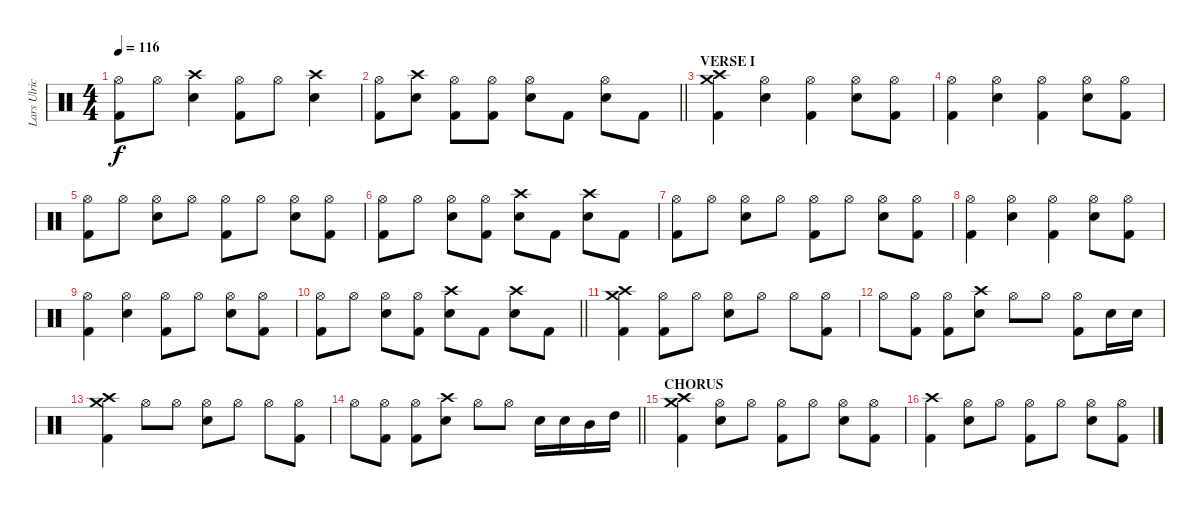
\track ("Lars Ulrich - drums" "Lars Ulric") {instrument percussion}
\staff {score}
\articulation defaults
\ts (4 4)
\tempo 116
\clef neutral
\ks c
("Hi-Hat (open)" "Kick (hit) 2").8{dy f} "Hi-Hat (open)".8 ("Crash high (hit)" "Snare (hit) 2").4 ("Hi-Hat (open)" "Kick (hit) 2").8 "Hi-Hat (open)".8 ("Crash high (hit)" "Snare (hit) 2").4 |
\barLineRight lightlight
("Hi-Hat (open)" "Kick (hit) 2").8 ("Crash high (hit)" "Snare (hit) 2").8 ("Hi-Hat (open)" "Kick (hit) 2").8 ("Hi-Hat (open)" "Kick (hit) 2").8 ("Hi-Hat (open)" "Snare (hit) 2").8 "Kick (hit) 2".8 ("Hi-Hat (open)" "Snare (hit) 2").8 "Kick (hit) 2".8 |
\section ("" "VERSE I")
("Crash high (hit)" "Crash medium (hit)" "Kick (hit) 2").4 ("Hi-Hat (open)" "Snare (hit) 2").4 ("Hi-Hat (open)" "Kick (hit) 2").4 ("Hi-Hat (open)" "Snare (hit) 2").8 ("Hi-Hat (open)" "Kick (hit) 2").8 |
("Hi-Hat (open)" "Kick (hit) 2").4 ("Hi-Hat (open)" "Snare (hit) 2").4 ("Hi-Hat (open)" "Kick (hit) 2").4 ("Hi-Hat (open)" "Snare (hit) 2").8 ("Hi-Hat (open)" "Kick (hit) 2").8 |
("Hi-Hat (open)" "Kick (hit) 2").8 "Hi-Hat (open)".8 ("Hi-Hat (open)" "Snare (hit) 2").8 "Hi-Hat (open)".8 ("Hi-Hat (open)" "Kick (hit) 2").8 "Hi-Hat (open)".8 ("Hi-Hat (open)" "Snare (hit) 2").8 ("Hi-Hat (open)" "Kick (hit) 2").8 |
("Hi-Hat (open)" "Kick (hit) 2").8 "Hi-Hat (open)".8 ("Hi-Hat (open)" "Snare (hit) 2").8 ("Hi-Hat (open)" "Kick (hit) 2").8 ("Crash high (hit)" "Snare (hit) 2").8 "Kick (hit) 2".8 ("Crash high (hit)" "Snare (hit) 2").8 "Kick (hit) 2".8 |
("Hi-Hat (open)" "Kick (hit) 2").8 "Hi-Hat (open)".8 ("Hi-Hat (open)" "Snare (hit) 2").8 "Hi-Hat (open)".8 ("Hi-Hat (open)" "Kick (hit) 2").8 "Hi-Hat (open)".8 ("Hi-Hat (open)" "Snare (hit) 2").8 ("Hi-Hat (open)" "Kick (hit) 2").8 |
("Hi-Hat (open)" "Kick (hit) 2").4 ("Hi-Hat (open)" "Snare (hit) 2").4 ("Hi-Hat (open)" "Kick (hit) 2").4 ("Hi-Hat (open)" "Snare (hit) 2").8 ("Hi-Hat (open)" "Kick (hit) 2").8 |
("Hi-Hat (open)" "Kick (hit) 2").4 ("Hi-Hat (open)" "Snare (hit) 2").4 ("Hi-Hat (open)" "Kick (hit) 2").8 "Hi-Hat (open)".8 ("Hi-Hat (open)" "Snare (hit) 2").8 ("Hi-Hat (open)" "Kick (hit) 2").8 |
\barLineRight lightlight
("Hi-Hat (open)" "Kick (hit) 2").8 "Hi-Hat (open)".8 ("Hi-Hat (open)" "Snare (hit) 2").8 ("Hi-Hat (open)" "Kick (hit) 2").8 ("Crash high (hit)" "Snare (hit) 2").8 "Kick (hit) 2".8 ("Crash high (hit)" "Snare (hit) 2").8 "Kick (hit) 2".8 |
\section ("" "")
("Crash high (hit)" "Crash medium (hit)" "Kick (hit) 2").4 ("Hi-Hat (open)" "Kick (hit) 2").8 "Hi-Hat (open)".8 ("Hi-Hat (open)" "Snare (hit) 2").8 "Hi-Hat (open)".8 "Hi-Hat (open)".8 ("Hi-Hat (open)" "Kick (hit) 2").8 |
"Hi-Hat (open)".8 ("Hi-Hat (open)" "Kick (hit) 2").8 ("Hi-Hat (open)" "Kick (hit) 2").8 ("Crash high (hit)" "Snare (hit) 2").8 "Hi-Hat (open)".8 "Hi-Hat (open)".8 ("Hi-Hat (open)" "Kick (hit) 2").8 "Snare (hit) 2".16 "Snare (hit) 2".16 |
("Crash high (hit)" "Crash medium (hit)" "Kick (hit) 2").4 "Hi-Hat (open)".8 "Hi-Hat (open)".8 ("Hi-Hat (open)" "Snare (hit) 2").8 "Hi-Hat (open)".8 "Hi-Hat (open)".8 ("Hi-Hat (open)" "Kick (hit) 2").8 |
\barLineRight lightlight "Hi-Hat (open)".8
("Hi-Hat (open)" "Kick (hit) 2").8 ("Hi-Hat (open)" "Kick (hit) 2").8 ("Crash high (hit)" "Snare (hit) 2").8 "Hi-Hat (open)".8 "Hi-Hat (open)".8 "Snare (hit) 2".16 "Snare (hit) 2".16 "Mid Tom (hit)".16 "High Tom (hit)".16 |
\section ("" "CHORUS")
("Crash high (hit)" "Crash medium (hit)" "Kick (hit) 2").4 ("Hi-Hat (open)" "Snare (hit) 2").8 "Hi-Hat (open)".8 ("Hi-Hat (open)" "Kick (hit) 2").8 "Hi-Hat (open)".8 ("Hi-Hat (open)" "Snare (hit) 2").8 ("Hi-Hat (open)" "Kick (hit) 2").8 |
("Crash high (hit)" "Kick (hit) 2").4 ("Hi-Hat (open)" "Snare (hit) 2").8 "Hi-Hat (open)".8 ("Hi-Hat (open)" "Kick (hit) 2").8 "Hi-Hat (open)".8 ("Hi-Hat (open)" "Snare (hit) 2").8 ("Hi-Hat (open)" "Kick (hit) 2").8
